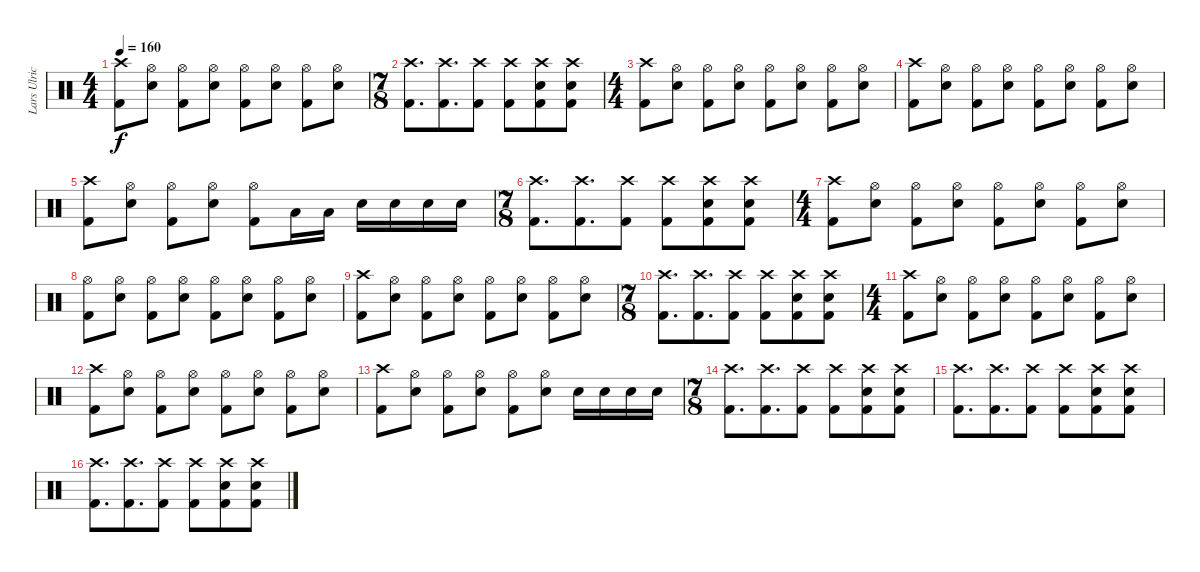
\track ("Lars Ulrich (Drums)" "Lars Ulric") {instrument percussion}
\staff {score}
\articulation defaults
\ts (4 4)
\tempo 160
\clef neutral
\ks c
("Crash high (hit)" "Kick (hit) 2").8{dy f} ("Hi-Hat (open)" "Electric Snare (hit)").8 ("Hi-Hat (open)" "Kick (hit) 2").8 ("Hi-Hat (open)" "Electric Snare (hit)").8 ("Hi-Hat (open)" "Kick (hit) 2").8 ("Hi-Hat (open)" "Electric Snare (hit)").8 ("Hi-Hat (open)" "Kick (hit) 2").8 ("Hi-Hat (open)" "Electric Snare (hit)").8 |
\ts (7 8)
("Crash high (hit)" "Kick (hit) 2").8{d} ("Crash high (hit)" "Kick (hit) 2").8{d} ("Crash high (hit)" "Kick (hit) 2").8 ("Crash high (hit)" "Kick (hit) 2").8 ("Crash high (hit)" "Electric Snare (hit)" "Kick (hit) 2").8 ("Crash high (hit)" "Electric Snare (hit)" "Kick (hit) 2").8 |
\ts (4 4)
("Crash high (hit)" "Kick (hit) 2").8 ("Hi-Hat (open)" "Electric Snare (hit)").8 ("Hi-Hat (open)" "Kick (hit) 2").8 ("Hi-Hat (open)" "Electric Snare (hit)").8 ("Hi-Hat (open)" "Kick (hit) 2").8 ("Hi-Hat (open)" "Electric Snare (hit)").8 ("Hi-Hat (open)" "Kick (hit) 2").8 ("Hi-Hat (open)" "Electric Snare (hit)").8 |
("Crash high (hit)" "Kick (hit) 2").8 ("Hi-Hat (open)" "Electric Snare (hit)").8 ("Hi-Hat (open)" "Kick (hit) 2").8 ("Hi-Hat (open)" "Electric Snare (hit)").8 ("Hi-Hat (open)" "Kick (hit) 2").8 ("Hi-Hat (open)" "Electric Snare (hit)").8 ("Hi-Hat (open)" "Kick (hit) 2").8 ("Hi-Hat (open)" "Electric Snare (hit)").8 |
("Crash high (hit)" "Kick (hit) 2").8 ("Hi-Hat (open)" "Electric Snare (hit)").8 ("Hi-Hat (open)" "Kick (hit) 2").8 ("Hi-Hat (open)" "Electric Snare (hit)").8 ("Hi-Hat (open)" "Kick (hit) 2").8 "Low Tom (hit)".16 "Low Tom (hit)".16 "Electric Snare (hit)".16 "Electric Snare (hit)".16 "Electric Snare (hit)".16 "Electric Snare (hit)".16 |
\ts (7 8)
("Crash high (hit)" "Kick (hit) 2").8{d} ("Crash high (hit)" "Kick (hit) 2").8{d} ("Crash high (hit)" "Kick (hit) 2").8 ("Crash high (hit)" "Kick (hit) 2").8 ("Crash high (hit)" "Electric Snare (hit)" "Kick (hit) 2").8 ("Crash high (hit)" "Electric Snare (hit)" "Kick (hit) 2").8 |
\ts (4 4)
("Crash high (hit)" "Kick (hit) 2").8 ("Hi-Hat (open)" "Electric Snare (hit)").8 ("Hi-Hat (open)" "Kick (hit) 2").8 ("Hi-Hat (open)" "Electric Snare (hit)").8 ("Hi-Hat (open)" "Kick (hit) 2").8 ("Hi-Hat (open)" "Electric Snare (hit)").8 ("Hi-Hat (open)" "Kick (hit) 2").8 ("Hi-Hat (open)" "Electric Snare (hit)").8 |
("Hi-Hat (open)" "Kick (hit) 2").8 ("Hi-Hat (open)" "Electric Snare (hit)").8 ("Hi-Hat (open)" "Kick (hit) 2").8 ("Hi-Hat (open)" "Electric Snare (hit)").8 ("Hi-Hat (open)" "Kick (hit) 2").8 ("Hi-Hat (open)" "Electric Snare (hit)").8 ("Hi-Hat (open)" "Kick (hit) 2").8 ("Hi-Hat (open)" "Electric Snare (hit)").8 |
("Crash high (hit)" "Kick (hit) 2").8 ("Hi-Hat (open)" "Electric Snare (hit)").8 ("Hi-Hat (open)" "Kick (hit) 2").8 ("Hi-Hat (open)" "Electric Snare (hit)").8 ("Hi-Hat (open)" "Kick (hit) 2").8 ("Hi-Hat (open)" "Electric Snare (hit)").8 ("Hi-Hat (open)" "Kick (hit) 2").8 ("Hi-Hat (open)" "Electric Snare (hit)").8 |
\ts (7 8)
("Crash high (hit)" "Kick (hit) 2").8{d} ("Crash high (hit)" "Kick (hit) 2").8{d} ("Crash high (hit)" "Kick (hit) 2").8 ("Crash high (hit)" "Kick (hit) 2").8 ("Crash high (hit)" "Electric Snare (hit)" "Kick (hit) 2").8 ("Crash high (hit)" "Electric Snare (hit)" "Kick (hit) 2").8 |
\ts (4 4)
("Crash high (hit)" "Kick (hit) 2").8 ("Hi-Hat (open)" "Electric Snare (hit)").8 ("Hi-Hat (open)" "Kick (hit) 2").8 ("Hi-Hat (open)" "Electric Snare (hit)").8 ("Hi-Hat (open)" "Kick (hit) 2").8 ("Hi-Hat (open)" "Electric Snare (hit)").8 ("Hi-Hat (open)" "Kick (hit) 2").8 ("Hi-Hat (open)" "Electric Snare (hit)").8 |
("Crash high (hit)" "Kick (hit) 2").8 ("Hi-Hat (open)" "Electric Snare (hit)").8 ("Hi-Hat (open)" "Kick (hit) 2").8 ("Hi-Hat (open)" "Electric Snare (hit)").8 ("Hi-Hat (open)" "Kick (hit) 2").8 ("Hi-Hat (open)" "Electric Snare (hit)").8 ("Hi-Hat (open)" "Kick (hit) 2").8 ("Hi-Hat (open)" "Electric Snare (hit)").8 |
("Crash high (hit)" "Kick (hit) 2").8 ("Hi-Hat (open)" "Electric Snare (hit)").8 ("Hi-Hat (open)" "Kick (hit) 2").8 ("Hi-Hat (open)" "Electric Snare (hit)").8 ("Hi-Hat (open)" "Kick (hit) 2").8 ("Hi-Hat (open)" "Electric Snare (hit)").8 "Electric Snare (hit)".16 "Electric Snare (hit)".16 "Electric Snare (hit)".16 "Electric Snare (hit)".16 |
\ts (7 8)
("Crash high (hit)" "Kick (hit) 2").8{d} ("Crash high (hit)" "Kick (hit) 2").8{d} ("Crash high (hit)" "Kick (hit) 2").8 ("Crash high (hit)" "Kick (hit) 2").8 ("Crash high (hit)" "Electric Snare (hit)" "Kick (hit) 2").8 ("Crash high (hit)" "Electric Snare (hit)" "Kick (hit) 2").8 |
("Crash high (hit)" "Kick (hit) 2").8{d} ("Crash high (hit)" "Kick (hit) 2").8{d} ("Crash high (hit)" "Kick (hit) 2").8 ("Crash high (hit)" "Kick (hit) 2").8 ("Crash high (hit)" "Electric Snare (hit)" "Kick (hit) 2").8 ("Crash high (hit)" "Electric Snare (hit)" "Kick (hit) 2").8 |
("Crash high (hit)" "Kick (hit) 2").8{d} ("Crash high (hit)" "Kick (hit) 2").8{d} ("Crash high (hit)" "Kick (hit) 2").8 ("Crash high (hit)" "Kick (hit) 2").8 ("Crash high (hit)" "Electric Snare (hit)" "Kick (hit) 2").8 ("Crash high (hit)" "Electric Snare (hit)" "Kick (hit) 2").8
